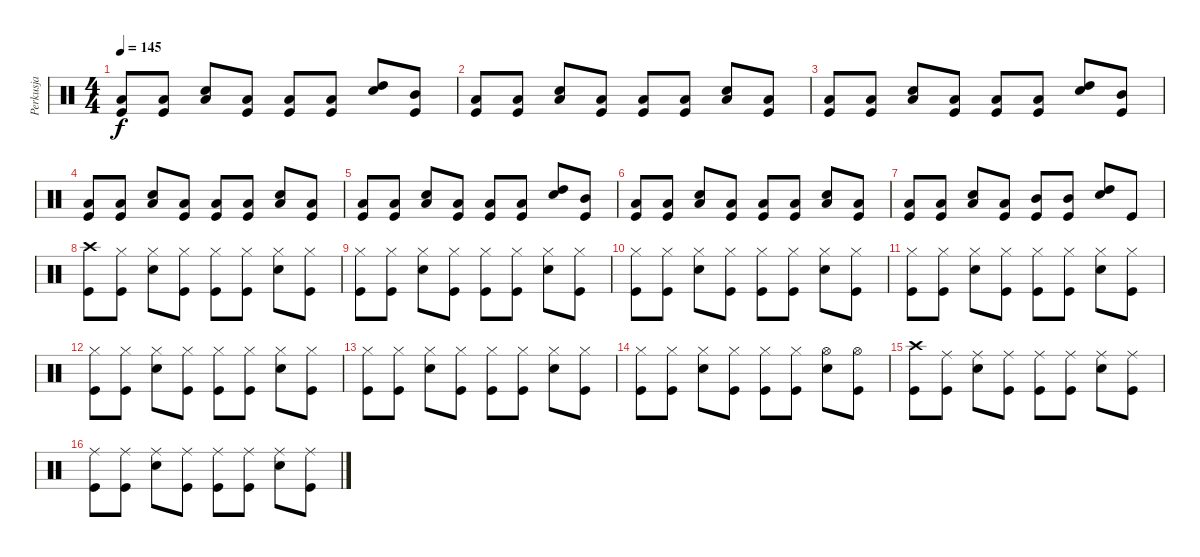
\track ("Perkusja" "Perkusja") {instrument percussion}
\staff {score}
\articulation defaults
\ts (4 4)
\tempo 145
\clef neutral
\ks c
("Low Floor Tom (hit)" "Kick (hit)").8{dy f} ("Low Floor Tom (hit)" "Kick (hit)").8 ("Low Floor Tom (hit)" "Snare (hit) 2").8 ("Low Floor Tom (hit)" "Kick (hit)").8 ("Low Floor Tom (hit)" "Kick (hit)").8 ("Low Floor Tom (hit)" "Kick (hit)").8 ("High Tom (hit)" "Snare (hit) 2").8 ("Mid Tom (hit)" "Kick (hit)").8 |
("Low Floor Tom (hit)" "Kick (hit)").8 ("Low Floor Tom (hit)" "Kick (hit)").8 ("Low Floor Tom (hit)" "Snare (hit) 2").8 ("Low Floor Tom (hit)" "Kick (hit)").8 ("Low Floor Tom (hit)" "Kick (hit)").8 ("Low Floor Tom (hit)" "Kick (hit)").8 ("Low Floor Tom (hit)" "Snare (hit) 2").8 ("Low Floor Tom (hit)" "Kick (hit)").8 |
("Low Floor Tom (hit)" "Kick (hit)").8 ("Low Floor Tom (hit)" "Kick (hit)").8 ("Low Floor Tom (hit)" "Snare (hit) 2").8 ("Low Floor Tom (hit)" "Kick (hit)").8 ("Low Floor Tom (hit)" "Kick (hit)").8 ("Low Floor Tom (hit)" "Kick (hit)").8 ("High Tom (hit)" "Snare (hit) 2").8 ("Mid Tom (hit)" "Kick (hit)").8 |
("Low Floor Tom (hit)" "Kick (hit)").8 ("Low Floor Tom (hit)" "Kick (hit)").8 ("Low Floor Tom (hit)" "Snare (hit) 2").8 ("Low Floor Tom (hit)" "Kick (hit)").8 ("Low Floor Tom (hit)" "Kick (hit)").8 ("Low Floor Tom (hit)" "Kick (hit)").8 ("Low Floor Tom (hit)" "Snare (hit) 2").8 ("Low Floor Tom (hit)" "Kick (hit)").8 |
("Low Floor Tom (hit)" "Kick (hit)").8 ("Low Floor Tom (hit)" "Kick (hit)").8 ("Low Floor Tom (hit)" "Snare (hit) 2").8 ("Low Floor Tom (hit)" "Kick (hit)").8 ("Low Floor Tom (hit)" "Kick (hit)").8 ("Low Floor Tom (hit)" "Kick (hit)").8 ("High Tom (hit)" "Snare (hit) 2").8 ("Mid Tom (hit)" "Kick (hit)").8 |
("Low Floor Tom (hit)" "Kick (hit)").8 ("Low Floor Tom (hit)" "Kick (hit)").8 ("Low Floor Tom (hit)" "Snare (hit) 2").8 ("Low Floor Tom (hit)" "Kick (hit)").8 ("Low Floor Tom (hit)" "Kick (hit)").8 ("Low Floor Tom (hit)" "Kick (hit)").8 ("Low Floor Tom (hit)" "Snare (hit) 2").8 ("Low Floor Tom (hit)" "Kick (hit)").8 |
("Low Floor Tom (hit)" "Kick (hit)").8 ("Low Floor Tom (hit)" "Kick (hit)").8 ("Low Floor Tom (hit)" "Snare (hit) 2").8 ("Low Floor Tom (hit)" "Kick (hit)").8 ("Mid Tom (hit)" "Kick (hit)").8 ("Mid Tom (hit)" "Kick (hit)").8 ("High Tom (hit)" "Snare (hit) 2").8 "Kick (hit)".8 |
("Crash high (hit)" "Kick (hit)").8 ("Hi-Hat (closed)" "Kick (hit)").8 ("Hi-Hat (closed)" "Snare (hit) 2").8 ("Hi-Hat (closed)" "Kick (hit)").8 ("Hi-Hat (closed)" "Kick (hit)").8 ("Hi-Hat (closed)" "Kick (hit)").8 ("Hi-Hat (closed)" "Snare (hit) 2").8 ("Hi-Hat (closed)" "Kick (hit)").8 |
("Hi-Hat (closed)" "Kick (hit)").8 ("Hi-Hat (closed)" "Kick (hit)").8 ("Hi-Hat (closed)" "Snare (hit) 2").8 ("Hi-Hat (closed)" "Kick (hit)").8 ("Hi-Hat (closed)" "Kick (hit)").8 ("Hi-Hat (closed)" "Kick (hit)").8 ("Hi-Hat (closed)" "Snare (hit) 2").8 ("Hi-Hat (closed)" "Kick (hit)").8 |
("Hi-Hat (closed)" "Kick (hit)").8 ("Hi-Hat (closed)" "Kick (hit)").8 ("Hi-Hat (closed)" "Snare (hit) 2").8 ("Hi-Hat (closed)" "Kick (hit)").8 ("Hi-Hat (closed)" "Kick (hit)").8 ("Hi-Hat (closed)" "Kick (hit)").8 ("Hi-Hat (closed)" "Snare (hit) 2").8 ("Hi-Hat (closed)" "Kick (hit)").8 |
("Hi-Hat (closed)" "Kick (hit)").8 ("Hi-Hat (closed)" "Kick (hit)").8 ("Hi-Hat (closed)" "Snare (hit) 2").8 ("Hi-Hat (closed)" "Kick (hit)").8 ("Hi-Hat (closed)" "Kick (hit)").8 ("Hi-Hat (closed)" "Kick (hit)").8 ("Hi-Hat (closed)" "Snare (hit) 2").8 ("Hi-Hat (closed)" "Kick (hit)").8 |
("Hi-Hat (closed)" "Kick (hit)").8 ("Hi-Hat (closed)" "Kick (hit)").8 ("Hi-Hat (closed)" "Snare (hit) 2").8 ("Hi-Hat (closed)" "Kick (hit)").8 ("Hi-Hat (closed)" "Kick (hit)").8 ("Hi-Hat (closed)" "Kick (hit)").8 ("Hi-Hat (closed)" "Snare (hit) 2").8 ("Hi-Hat (closed)" "Kick (hit)").8 |
("Hi-Hat (closed)" "Kick (hit)").8 ("Hi-Hat (closed)" "Kick (hit)").8 ("Hi-Hat (closed)" "Snare (hit) 2").8 ("Hi-Hat (closed)" "Kick (hit)").8 ("Hi-Hat (closed)" "Kick (hit)").8 ("Hi-Hat (closed)" "Kick (hit)").8 ("Hi-Hat (closed)" "Snare (hit) 2").8 ("Hi-Hat (closed)" "Kick (hit)").8 |
("Hi-Hat (closed)" "Kick (hit)").8 ("Hi-Hat (closed)" "Kick (hit)").8 ("Hi-Hat (closed)" "Snare (hit) 2").8 ("Hi-Hat (closed)" "Kick (hit)").8 ("Hi-Hat (closed)" "Kick (hit)").8 ("Hi-Hat (closed)" "Kick (hit)").8 ("Hi-Hat (open)" "Snare (hit) 2").8 ("Hi-Hat (open)" "Kick (hit)").8 |
("Crash high (hit)" "Kick (hit)").8 ("Ride (middle)" "Kick (hit)").8 ("Ride (middle)" "Snare (hit) 2").8 ("Ride (middle)" "Kick (hit)").8 ("Ride (middle)" "Kick (hit)").8 ("Ride (middle)" "Kick (hit)").8 ("Ride (middle)" "Snare (hit) 2").8 ("Ride (middle)" "Kick (hit)").8 |
("Ride (middle)" "Kick (hit)").8 ("Ride (middle)" "Kick (hit)").8 ("Ride (middle)" "Snare (hit) 2").8 ("Ride (middle)" "Kick (hit)").8 ("Ride (middle)" "Kick (hit)").8 ("Ride (middle)" "Kick (hit)").8 ("Ride (middle)" "Snare (hit) 2").8 ("Ride (middle)" "Kick (hit)").8
